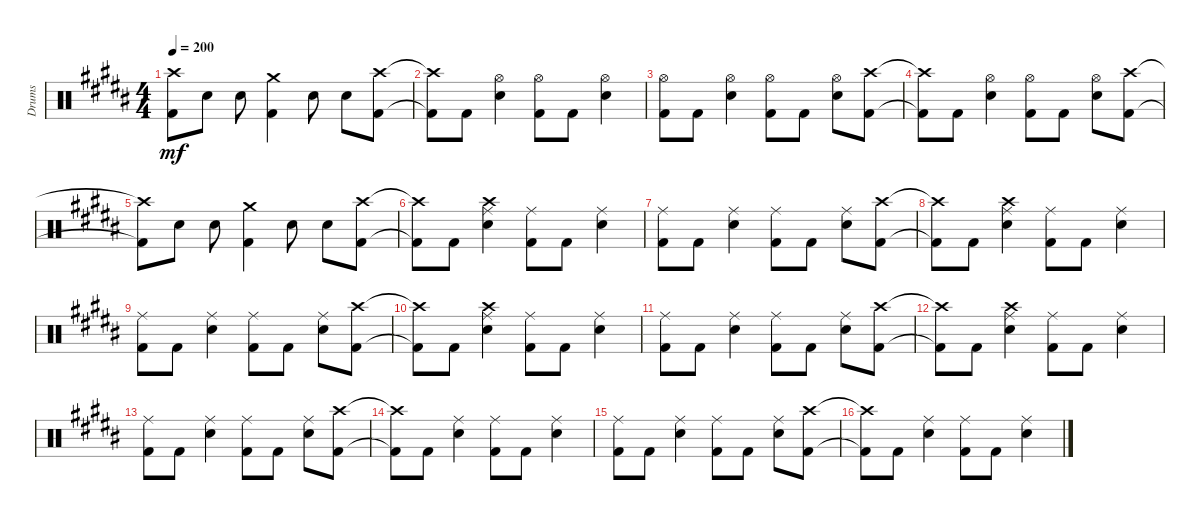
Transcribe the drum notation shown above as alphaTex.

\track ("Drums" "Drums") {instrument percussion}
\staff {score}
\articulation defaults
\ts (4 4)
\tempo 200
\clef neutral
\ks b
("Kick (hit) 2"{t} "Crash high (hit)"{t}).8{dy mf} "Snare (hit) 2".8 "Snare (hit) 2".8 ("Kick (hit) 2" "Crash medium (hit)").4 "Snare (hit) 2".8 "Snare (hit) 2".8 ("Kick (hit) 2" "Crash high (hit)").8 |
("Kick (hit) 2"{t} "Crash high (hit)"{t}).8 "Kick (hit) 2".8 ("Snare (hit) 2" "Hi-Hat (open)").4 ("Kick (hit) 2" "Hi-Hat (open)").8 "Kick (hit) 2".8 ("Snare (hit) 2" "Hi-Hat (open)").4 |
("Kick (hit) 2" "Hi-Hat (open)").8 "Kick (hit) 2".8 ("Snare (hit) 2" "Hi-Hat (open)").4 ("Kick (hit) 2" "Hi-Hat (open)").8 "Kick (hit) 2".8 ("Snare (hit) 2" "Hi-Hat (open)").8 ("Kick (hit) 2" "Crash high (hit)").8 |
("Kick (hit) 2"{t} "Crash high (hit)"{t}).8 "Kick (hit) 2".8 ("Snare (hit) 2" "Hi-Hat (open)").4 ("Kick (hit) 2" "Hi-Hat (open)").8 "Kick (hit) 2".8 ("Snare (hit) 2" "Hi-Hat (open)").8 ("Kick (hit) 2" "Crash high (hit)").8 |
("Kick (hit) 2"{t} "Crash high (hit)"{t}).8 "Snare (hit) 2".8 "Snare (hit) 2".8 ("Kick (hit) 2" "Crash medium (hit)").4 "Snare (hit) 2".8 "Snare (hit) 2".8 ("Kick (hit) 2" "Crash high (hit)").8 |
("Kick (hit) 2"{t} "Crash high (hit)"{t}).8 "Kick (hit) 2".8 ("Snare (hit) 2" "Ride (middle)" "Crash high (hit)").4 ("Kick (hit) 2" "Ride (middle)").8 "Kick (hit) 2".8 ("Snare (hit) 2" "Ride (middle)").4 |
("Kick (hit) 2" "Ride (middle)").8 "Kick (hit) 2".8 ("Snare (hit) 2" "Ride (middle)").4 ("Kick (hit) 2" "Ride (middle)").8 "Kick (hit) 2".8 ("Snare (hit) 2" "Ride (middle)").8 ("Kick (hit) 2" "Crash high (hit)").8 |
("Kick (hit) 2"{t} "Crash high (hit)"{t}).8 "Kick (hit) 2".8 ("Snare (hit) 2" "Ride (middle)" "Crash high (hit)").4 ("Kick (hit) 2" "Ride (middle)").8 "Kick (hit) 2".8 ("Snare (hit) 2" "Ride (middle)").4 |
("Kick (hit) 2" "Ride (middle)").8 "Kick (hit) 2".8 ("Snare (hit) 2" "Ride (middle)").4 ("Kick (hit) 2" "Ride (middle)").8 "Kick (hit) 2".8 ("Snare (hit) 2" "Ride (middle)").8 ("Kick (hit) 2" "Crash high (hit)").8 |
("Kick (hit) 2"{t} "Crash high (hit)"{t}).8 "Kick (hit) 2".8 ("Snare (hit) 2" "Ride (middle)" "Crash high (hit)").4 ("Kick (hit) 2" "Ride (middle)").8 "Kick (hit) 2".8 ("Snare (hit) 2" "Ride (middle)").4 |
("Kick (hit) 2" "Ride (middle)").8 "Kick (hit) 2".8 ("Snare (hit) 2" "Ride (middle)").4 ("Kick (hit) 2" "Ride (middle)").8 "Kick (hit) 2".8 ("Snare (hit) 2" "Ride (middle)").8 ("Kick (hit) 2" "Crash high (hit)").8 |
("Kick (hit) 2"{t} "Crash high (hit)"{t}).8 "Kick (hit) 2".8 ("Snare (hit) 2" "Ride (middle)" "Crash high (hit)").4 ("Kick (hit) 2" "Ride (middle)").8 "Kick (hit) 2".8 ("Snare (hit) 2" "Ride (middle)").4 |
("Kick (hit) 2" "Ride (middle)").8 "Kick (hit) 2".8 ("Snare (hit) 2" "Ride (middle)").4 ("Kick (hit) 2" "Ride (middle)").8 "Kick (hit) 2".8 ("Snare (hit) 2" "Ride (middle)").8 ("Kick (hit) 2" "Crash high (hit)").8 |
("Kick (hit) 2"{t} "Crash high (hit)"{t}).8 "Kick (hit) 2".8 ("Snare (hit) 2" "Ride (middle)").4 ("Kick (hit) 2" "Ride (middle)").8 "Kick (hit) 2".8 ("Snare (hit) 2" "Ride (middle)").4 |
("Kick (hit) 2" "Ride (middle)").8 "Kick (hit) 2".8 ("Snare (hit) 2" "Ride (middle)").4 ("Kick (hit) 2" "Ride (middle)").8 "Kick (hit) 2".8 ("Snare (hit) 2" "Ride (middle)").8 ("Kick (hit) 2" "Crash high (hit)").8 |
("Kick (hit) 2"{t} "Crash high (hit)"{t}).8 "Kick (hit) 2".8 ("Snare (hit) 2" "Ride (middle)").4 ("Kick (hit) 2" "Ride (middle)").8 "Kick (hit) 2".8 ("Snare (hit) 2" "Ride (middle)").4
